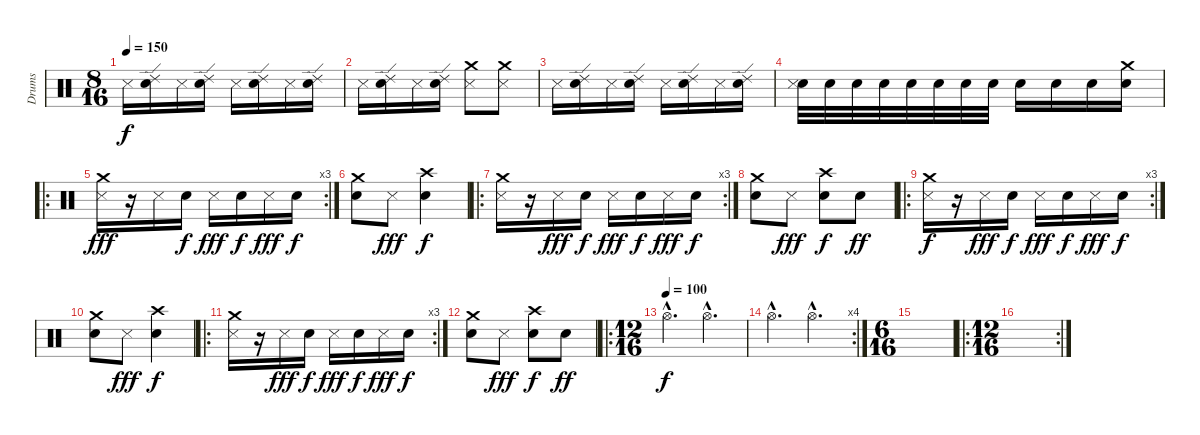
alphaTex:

\track ("Drums" "Drums") {instrument percussion}
\staff {score}
\articulation defaults
\ts (8 16)
\tempo 150
\clef neutral
\ks c "Metronome (hit)".16{dy f}
("Ride (edge) 2" "Metronome (bell)").16 "Metronome (hit)".16 ("Ride (edge) 2" "Metronome (bell)").16 "Metronome (hit)".16 ("Ride (edge) 2" "Metronome (bell)").16 "Metronome (hit)".16 ("Ride (edge) 2" "Metronome (bell)").16 |
"Metronome (hit)".16 ("Ride (edge) 2" "Metronome (bell)").16 "Metronome (hit)".16 ("Ride (edge) 2" "Metronome (bell)").16 ("Crash medium (hit)" "Metronome (hit)").8 ("Crash medium (hit)" "Metronome (hit)").8 |
"Metronome (hit)".16 ("Ride (edge) 2" "Metronome (bell)").16 "Metronome (hit)".16 ("Ride (edge) 2" "Metronome (bell)").16 "Metronome (hit)".16 ("Ride (edge) 2" "Metronome (bell)").16 "Metronome (hit)".16 ("Ride (edge) 2" "Metronome (bell)").16 |
("Metronome (bell)" "Metronome (hit)").32 "Metronome (bell)".32 "Metronome (bell)".32 "Metronome (bell)".32 "Metronome (bell)".32 "Metronome (bell)".32 "Metronome (bell)".32 "Metronome (bell)".32 "Metronome (bell)".16 "Metronome (bell)".16 "Metronome (bell)".16 ("Crash medium (hit)" "Metronome (bell)").16 |
\ro
\rc 3
("Crash medium (hit)" "Metronome (hit)").16{dy fff} r.16 "Metronome (hit)".16 "Metronome (bell)".16{dy f} "Metronome (hit)".16{dy fff} "Metronome (bell)".16{dy f} "Metronome (hit)".16{dy fff} "Metronome (bell)".16{dy f} |
("Crash medium (hit)" "Metronome (bell)").8 "Metronome (hit)".8{dy fff} ("Crash high (hit)" "Metronome (bell)").4{dy f} |
\ro
\rc 3
("Crash medium (hit)" "Metronome (hit)").16 r.16 "Metronome (hit)".16{dy fff} "Metronome (bell)".16{dy f} "Metronome (hit)".16{dy fff} "Metronome (bell)".16{dy f} "Metronome (hit)".16{dy fff} "Metronome (bell)".16{dy f} |
("Crash medium (hit)" "Metronome (bell)").8 "Metronome (hit)".8{dy fff} ("Crash high (hit)" "Metronome (bell)").8{dy f} "Metronome (bell)".8{dy ff} |
\ro
\rc 3
("Crash medium (hit)" "Metronome (hit)").16{dy f} r.16 "Metronome (hit)".16{dy fff} "Metronome (bell)".16{dy f} "Metronome (hit)".16{dy fff} "Metronome (bell)".16{dy f} "Metronome (hit)".16{dy fff} "Metronome (bell)".16{dy f} |
("Crash medium (hit)" "Metronome (bell)").8 "Metronome (hit)".8{dy fff} ("Crash high (hit)" "Metronome (bell)").4{dy f} |
\ro
\rc 3
("Crash medium (hit)" "Metronome (hit)").16 r.16 "Metronome (hit)".16{dy fff} "Metronome (bell)".16{dy f} "Metronome (hit)".16{dy fff} "Metronome (bell)".16{dy f} "Metronome (hit)".16{dy fff} "Metronome (bell)".16{dy f} |
("Crash medium (hit)" "Metronome (bell)").8 "Metronome (hit)".8{dy fff} ("Crash high (hit)" "Metronome (bell)").8{dy f} "Metronome (bell)".8{dy ff} |
\ro
\ts (12 16)
\tempo (100)
"Hi-Hat (open)"{hac}.4{d dy f} "Hi-Hat (open)"{hac}.4{d} |
\rc 4 "Hi-Hat (open)"{hac}.4{d} "Hi-Hat (open)"{hac}.4{d}
|
\ts (6 16)
|
\ro
\rc 2
\ts (12 16)
